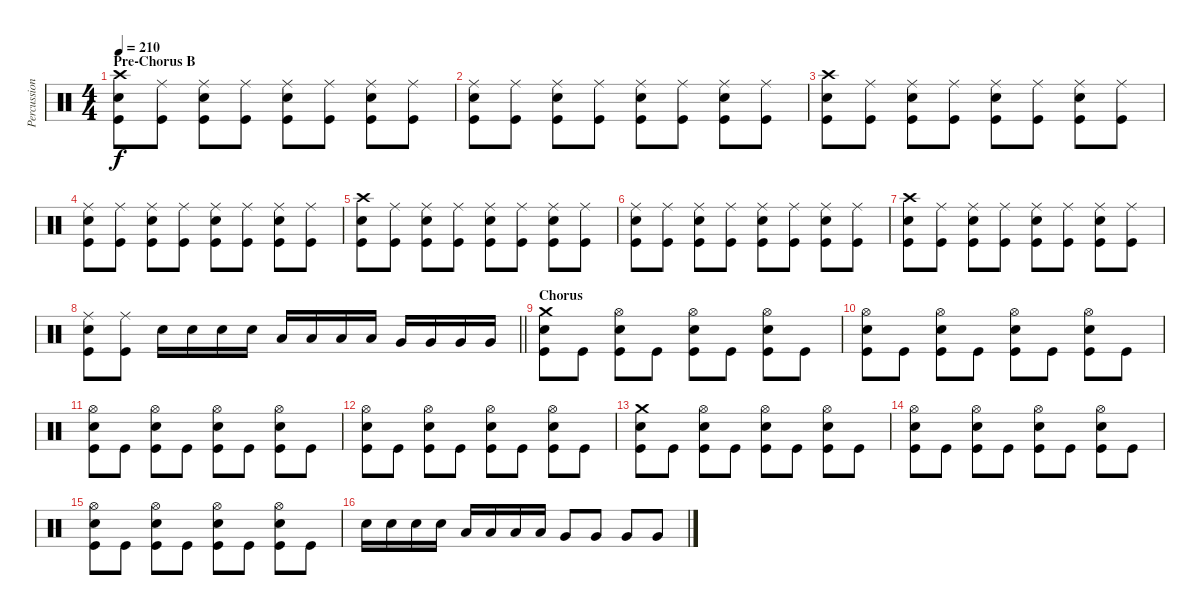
\track ("Percussion" "Percussion") {instrument percussion}
\staff {score}
\articulation defaults
\ts (4 4)
\section ("" "Pre-Chorus B")
\tempo 210
\clef neutral
\ks c
("Crash high (hit)" "Electric Snare (hit)" "Kick (hit)").8{dy f} ("Ride (middle)" "Kick (hit)").8 ("Ride (middle)" "Electric Snare (hit)" "Kick (hit)").8 ("Ride (middle)" "Kick (hit)").8 ("Ride (middle)" "Electric Snare (hit)" "Kick (hit)").8 ("Ride (middle)" "Kick (hit)").8 ("Ride (middle)" "Electric Snare (hit)" "Kick (hit)").8 ("Ride (middle)" "Kick (hit)").8 |
("Ride (middle)" "Electric Snare (hit)" "Kick (hit)").8 ("Ride (middle)" "Kick (hit)").8 ("Ride (middle)" "Electric Snare (hit)" "Kick (hit)").8 ("Ride (middle)" "Kick (hit)").8 ("Ride (middle)" "Electric Snare (hit)" "Kick (hit)").8 ("Ride (middle)" "Kick (hit)").8 ("Ride (middle)" "Electric Snare (hit)" "Kick (hit)").8 ("Ride (middle)" "Kick (hit)").8 |
("Crash high (hit)" "Electric Snare (hit)" "Kick (hit)").8 ("Ride (middle)" "Kick (hit)").8 ("Ride (middle)" "Electric Snare (hit)" "Kick (hit)").8 ("Ride (middle)" "Kick (hit)").8 ("Ride (middle)" "Electric Snare (hit)" "Kick (hit)").8 ("Ride (middle)" "Kick (hit)").8 ("Ride (middle)" "Electric Snare (hit)" "Kick (hit)").8 ("Ride (middle)" "Kick (hit)").8 |
("Ride (middle)" "Electric Snare (hit)" "Kick (hit)").8 ("Ride (middle)" "Kick (hit)").8 ("Ride (middle)" "Electric Snare (hit)" "Kick (hit)").8 ("Ride (middle)" "Kick (hit)").8 ("Ride (middle)" "Electric Snare (hit)" "Kick (hit)").8 ("Ride (middle)" "Kick (hit)").8 ("Ride (middle)" "Electric Snare (hit)" "Kick (hit)").8 ("Ride (middle)" "Kick (hit)").8 |
("Crash high (hit)" "Electric Snare (hit)" "Kick (hit)").8 ("Ride (middle)" "Kick (hit)").8 ("Ride (middle)" "Electric Snare (hit)" "Kick (hit)").8 ("Ride (middle)" "Kick (hit)").8 ("Ride (middle)" "Electric Snare (hit)" "Kick (hit)").8 ("Ride (middle)" "Kick (hit)").8 ("Ride (middle)" "Electric Snare (hit)" "Kick (hit)").8 ("Ride (middle)" "Kick (hit)").8 |
("Ride (middle)" "Electric Snare (hit)" "Kick (hit)").8 ("Ride (middle)" "Kick (hit)").8 ("Ride (middle)" "Electric Snare (hit)" "Kick (hit)").8 ("Ride (middle)" "Kick (hit)").8 ("Ride (middle)" "Electric Snare (hit)" "Kick (hit)").8 ("Ride (middle)" "Kick (hit)").8 ("Ride (middle)" "Electric Snare (hit)" "Kick (hit)").8 ("Ride (middle)" "Kick (hit)").8 |
("Crash high (hit)" "Electric Snare (hit)" "Kick (hit)").8 ("Ride (middle)" "Kick (hit)").8 ("Ride (middle)" "Electric Snare (hit)" "Kick (hit)").8 ("Ride (middle)" "Kick (hit)").8 ("Ride (middle)" "Electric Snare (hit)" "Kick (hit)").8 ("Ride (middle)" "Kick (hit)").8 ("Ride (middle)" "Electric Snare (hit)" "Kick (hit)").8 ("Ride (middle)" "Kick (hit)").8 |
\barLineRight lightlight
("Ride (middle)" "Electric Snare (hit)" "Kick (hit)").8 ("Ride (middle)" "Kick (hit)").8 "Electric Snare (hit)".16 "Electric Snare (hit)".16 "Electric Snare (hit)".16 "Electric Snare (hit)".16 "Low Tom (hit)".16 "Low Tom (hit)".16 "Low Tom (hit)".16 "Low Tom (hit)".16 "Very Low Tom (hit)".16 "Very Low Tom (hit)".16 "Very Low Tom (hit)".16 "Very Low Tom (hit)".16 |
\section ("" "Chorus")
("Crash medium (hit)" "Electric Snare (hit)" "Kick (hit)").8 "Kick (hit)".8 ("Hi-Hat (open)" "Electric Snare (hit)" "Kick (hit)").8 "Kick (hit)".8 ("Hi-Hat (open)" "Electric Snare (hit)" "Kick (hit)").8 "Kick (hit)".8 ("Hi-Hat (open)" "Electric Snare (hit)" "Kick (hit)").8 "Kick (hit)".8 |
("Hi-Hat (open)" "Electric Snare (hit)" "Kick (hit)").8 "Kick (hit)".8 ("Hi-Hat (open)" "Electric Snare (hit)" "Kick (hit)").8 "Kick (hit)".8 ("Hi-Hat (open)" "Electric Snare (hit)" "Kick (hit)").8 "Kick (hit)".8 ("Hi-Hat (open)" "Electric Snare (hit)" "Kick (hit)").8 "Kick (hit)".8 |
("Hi-Hat (open)" "Electric Snare (hit)" "Kick (hit)").8 "Kick (hit)".8 ("Hi-Hat (open)" "Electric Snare (hit)" "Kick (hit)").8 "Kick (hit)".8 ("Hi-Hat (open)" "Electric Snare (hit)" "Kick (hit)").8 "Kick (hit)".8 ("Hi-Hat (open)" "Electric Snare (hit)" "Kick (hit)").8 "Kick (hit)".8 |
("Hi-Hat (open)" "Electric Snare (hit)" "Kick (hit)").8 "Kick (hit)".8 ("Hi-Hat (open)" "Electric Snare (hit)" "Kick (hit)").8 "Kick (hit)".8 ("Hi-Hat (open)" "Electric Snare (hit)" "Kick (hit)").8 "Kick (hit)".8 ("Hi-Hat (open)" "Electric Snare (hit)" "Kick (hit)").8 "Kick (hit)".8 |
("Crash medium (hit)" "Electric Snare (hit)" "Kick (hit)").8 "Kick (hit)".8 ("Hi-Hat (open)" "Electric Snare (hit)" "Kick (hit)").8 "Kick (hit)".8 ("Hi-Hat (open)" "Electric Snare (hit)" "Kick (hit)").8 "Kick (hit)".8 ("Hi-Hat (open)" "Electric Snare (hit)" "Kick (hit)").8 "Kick (hit)".8 |
("Hi-Hat (open)" "Electric Snare (hit)" "Kick (hit)").8 "Kick (hit)".8 ("Hi-Hat (open)" "Electric Snare (hit)" "Kick (hit)").8 "Kick (hit)".8 ("Hi-Hat (open)" "Electric Snare (hit)" "Kick (hit)").8 "Kick (hit)".8 ("Hi-Hat (open)" "Electric Snare (hit)" "Kick (hit)").8 "Kick (hit)".8 |
("Hi-Hat (open)" "Electric Snare (hit)" "Kick (hit)").8 "Kick (hit)".8 ("Hi-Hat (open)" "Electric Snare (hit)" "Kick (hit)").8 "Kick (hit)".8 ("Hi-Hat (open)" "Electric Snare (hit)" "Kick (hit)").8 "Kick (hit)".8 ("Hi-Hat (open)" "Electric Snare (hit)" "Kick (hit)").8 "Kick (hit)".8 |
"Electric Snare (hit)".16 "Electric Snare (hit)".16 "Electric Snare (hit)".16 "Electric Snare (hit)".16 "Low Tom (hit)".16 "Low Tom (hit)".16 "Low Tom (hit)".16 "Low Tom (hit)".16 "Very Low Tom (hit)".8 "Very Low Tom (hit)".8 "Very Low Tom (hit)".8 "Very Low Tom (hit)".8
